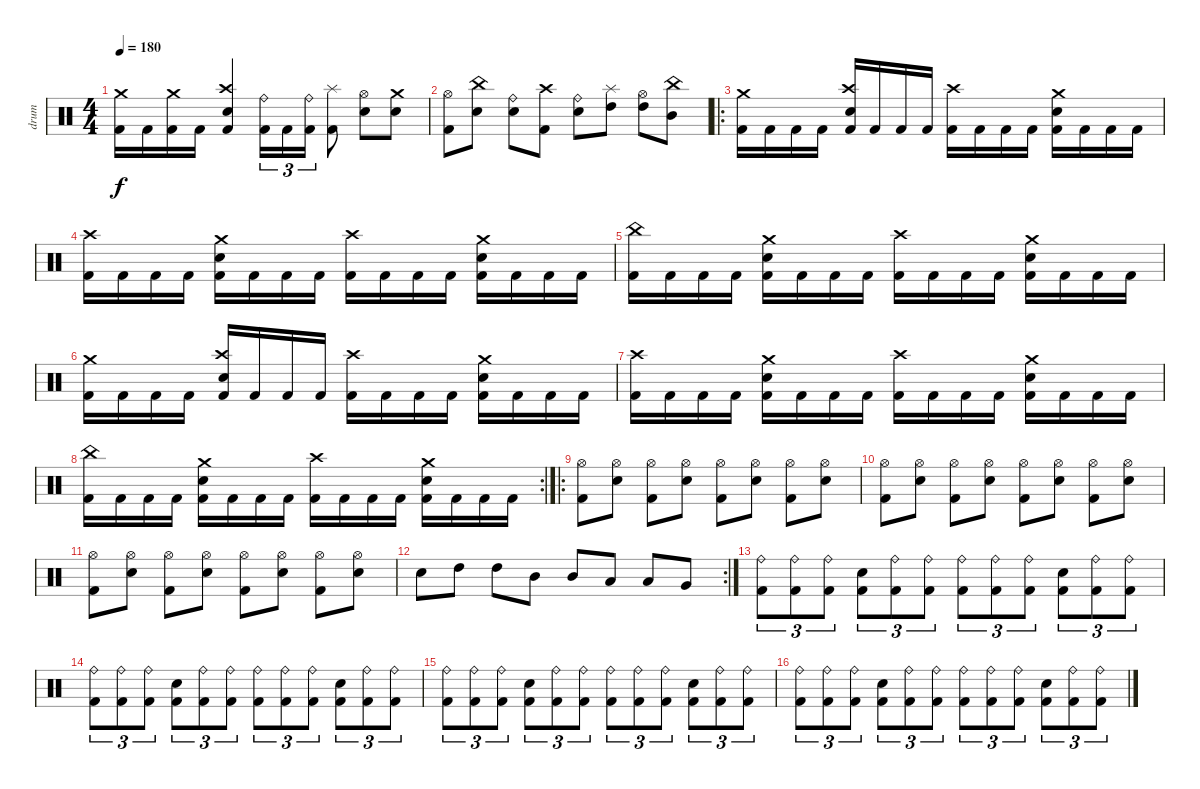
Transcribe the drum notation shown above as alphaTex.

\track ("drum" "drum") {instrument percussion}
\staff {score}
\articulation defaults
\ts (4 4)
\tempo 180
\clef neutral
\ks c
("Crash medium (hit)" "Kick (hit) 2").16{dy f} "Kick (hit) 2".16 ("Crash medium (hit)" "Kick (hit) 2").16 "Kick (hit) 2".16 ("Crash high (hit)" "Electric Snare (hit)" "Kick (hit) 2").4 ("Ride (bell)" "Kick (hit) 2").16{tu (3 2)} "Kick (hit) 2".16{tu (3 2)} ("Ride (bell)" "Kick (hit) 2").16{tu (3 2)} ("Splash (hit)" "Kick (hit) 2").8 ("Hi-Hat (open)" "Electric Snare (hit)").8 ("Crash medium (hit)" "Electric Snare (hit)").8 |
("Hi-Hat (open)" "Kick (hit) 2").8 ("China (hit)" "Electric Snare (hit)").8 ("Ride (bell)" "Electric Snare (hit)").8 ("Crash high (hit)" "Kick (hit) 2").8 ("Ride (bell)" "Electric Snare (hit)").8 ("Splash (hit)" "High Tom (hit)").8 ("Hi-Hat (open)" "High Tom (hit)").8 ("China (hit)" "Mid Tom (hit)").8 |
\ro
("Crash medium (hit)" "Kick (hit) 2").16 "Kick (hit) 2".16 "Kick (hit) 2".16 "Kick (hit) 2".16 ("Crash high (hit)" "Electric Snare (hit)" "Kick (hit) 2").16 "Kick (hit) 2".16 "Kick (hit) 2".16 "Kick (hit) 2".16 ("Crash high (hit)" "Kick (hit) 2").16 "Kick (hit) 2".16 "Kick (hit) 2".16 "Kick (hit) 2".16 ("Crash medium (hit)" "Electric Snare (hit)" "Kick (hit) 2").16 "Kick (hit) 2".16 "Kick (hit) 2".16 "Kick (hit) 2".16 |
("Crash high (hit)" "Kick (hit) 2").16 "Kick (hit) 2".16 "Kick (hit) 2".16 "Kick (hit) 2".16 ("Crash medium (hit)" "Electric Snare (hit)" "Kick (hit) 2").16 "Kick (hit) 2".16 "Kick (hit) 2".16 "Kick (hit) 2".16 ("Crash high (hit)" "Kick (hit) 2").16 "Kick (hit) 2".16 "Kick (hit) 2".16 "Kick (hit) 2".16 ("Crash medium (hit)" "Electric Snare (hit)" "Kick (hit) 2").16 "Kick (hit) 2".16 "Kick (hit) 2".16 "Kick (hit) 2".16 |
("China (hit)" "Kick (hit) 2").16 "Kick (hit) 2".16 "Kick (hit) 2".16 "Kick (hit) 2".16 ("Crash medium (hit)" "Electric Snare (hit)" "Kick (hit) 2").16 "Kick (hit) 2".16 "Kick (hit) 2".16 "Kick (hit) 2".16 ("Crash high (hit)" "Kick (hit) 2").16 "Kick (hit) 2".16 "Kick (hit) 2".16 "Kick (hit) 2".16 ("Crash medium (hit)" "Electric Snare (hit)" "Kick (hit) 2").16 "Kick (hit) 2".16 "Kick (hit) 2".16 "Kick (hit) 2".16 |
("Crash medium (hit)" "Kick (hit) 2").16 "Kick (hit) 2".16 "Kick (hit) 2".16 "Kick (hit) 2".16 ("Crash high (hit)" "Electric Snare (hit)" "Kick (hit) 2").16 "Kick (hit) 2".16 "Kick (hit) 2".16 "Kick (hit) 2".16 ("Crash high (hit)" "Kick (hit) 2").16 "Kick (hit) 2".16 "Kick (hit) 2".16 "Kick (hit) 2".16 ("Crash medium (hit)" "Electric Snare (hit)" "Kick (hit) 2").16 "Kick (hit) 2".16 "Kick (hit) 2".16 "Kick (hit) 2".16 |
("Crash high (hit)" "Kick (hit) 2").16 "Kick (hit) 2".16 "Kick (hit) 2".16 "Kick (hit) 2".16 ("Crash medium (hit)" "Electric Snare (hit)" "Kick (hit) 2").16 "Kick (hit) 2".16 "Kick (hit) 2".16 "Kick (hit) 2".16 ("Crash high (hit)" "Kick (hit) 2").16 "Kick (hit) 2".16 "Kick (hit) 2".16 "Kick (hit) 2".16 ("Crash medium (hit)" "Electric Snare (hit)" "Kick (hit) 2").16 "Kick (hit) 2".16 "Kick (hit) 2".16 "Kick (hit) 2".16 |
\rc 2
("China (hit)" "Kick (hit) 2").16 "Kick (hit) 2".16 "Kick (hit) 2".16 "Kick (hit) 2".16 ("Crash medium (hit)" "Electric Snare (hit)" "Kick (hit) 2").16 "Kick (hit) 2".16 "Kick (hit) 2".16 "Kick (hit) 2".16 ("Crash high (hit)" "Kick (hit) 2").16 "Kick (hit) 2".16 "Kick (hit) 2".16 "Kick (hit) 2".16 ("Crash medium (hit)" "Electric Snare (hit)" "Kick (hit) 2").16 "Kick (hit) 2".16 "Kick (hit) 2".16 "Kick (hit) 2".16 |
\ro
("Hi-Hat (open)" "Kick (hit) 2").8 ("Hi-Hat (open)" "Electric Snare (hit)").8 ("Hi-Hat (open)" "Kick (hit) 2").8 ("Hi-Hat (open)" "Electric Snare (hit)").8 ("Hi-Hat (open)" "Kick (hit) 2").8 ("Hi-Hat (open)" "Electric Snare (hit)").8 ("Hi-Hat (open)" "Kick (hit) 2").8 ("Hi-Hat (open)" "Electric Snare (hit)").8 |
("Hi-Hat (open)" "Kick (hit) 2").8 ("Hi-Hat (open)" "Electric Snare (hit)").8 ("Hi-Hat (open)" "Kick (hit) 2").8 ("Hi-Hat (open)" "Electric Snare (hit)").8 ("Hi-Hat (open)" "Kick (hit) 2").8 ("Hi-Hat (open)" "Electric Snare (hit)").8 ("Hi-Hat (open)" "Kick (hit) 2").8 ("Hi-Hat (open)" "Electric Snare (hit)").8 |
("Hi-Hat (open)" "Kick (hit) 2").8 ("Hi-Hat (open)" "Electric Snare (hit)").8 ("Hi-Hat (open)" "Kick (hit) 2").8 ("Hi-Hat (open)" "Electric Snare (hit)").8 ("Hi-Hat (open)" "Kick (hit) 2").8 ("Hi-Hat (open)" "Electric Snare (hit)").8 ("Hi-Hat (open)" "Kick (hit) 2").8 ("Hi-Hat (open)" "Electric Snare (hit)").8 |
\rc 2 "Electric Snare (hit)".8 "High Tom (hit)".8 "High Tom (hit)".8 "Mid Tom (hit)".8 "Mid Tom (hit)".8 "Low Tom (hit)".8 "Low Tom (hit)".8 "Very Low Tom (hit)".8
|
("Ride (bell)" "Kick (hit) 2").8{tu (3 2)} ("Ride (bell)" "Kick (hit) 2").8{tu (3 2)} ("Ride (bell)" "Kick (hit) 2").8{tu (3 2)} ("Electric Snare (hit)" "Kick (hit) 2").8{tu (3 2)} ("Ride (bell)" "Kick (hit) 2").8{tu (3 2)} ("Ride (bell)" "Kick (hit) 2").8{tu (3 2)} ("Ride (bell)" "Kick (hit) 2").8{tu (3 2)} ("Ride (bell)" "Kick (hit) 2").8{tu (3 2)} ("Ride (bell)" "Kick (hit) 2").8{tu (3 2)} ("Electric Snare (hit)" "Kick (hit) 2").8{tu (3 2)} ("Ride (bell)" "Kick (hit) 2").8{tu (3 2)} ("Ride (bell)" "Kick (hit) 2").8{tu (3 2)} |
("Ride (bell)" "Kick (hit) 2").8{tu (3 2)} ("Ride (bell)" "Kick (hit) 2").8{tu (3 2)} ("Ride (bell)" "Kick (hit) 2").8{tu (3 2)} ("Electric Snare (hit)" "Kick (hit) 2").8{tu (3 2)} ("Ride (bell)" "Kick (hit) 2").8{tu (3 2)} ("Ride (bell)" "Kick (hit) 2").8{tu (3 2)} ("Ride (bell)" "Kick (hit) 2").8{tu (3 2)} ("Ride (bell)" "Kick (hit) 2").8{tu (3 2)} ("Ride (bell)" "Kick (hit) 2").8{tu (3 2)} ("Electric Snare (hit)" "Kick (hit) 2").8{tu (3 2)} ("Ride (bell)" "Kick (hit) 2").8{tu (3 2)} ("Ride (bell)" "Kick (hit) 2").8{tu (3 2)} |
("Ride (bell)" "Kick (hit) 2").8{tu (3 2)} ("Ride (bell)" "Kick (hit) 2").8{tu (3 2)} ("Ride (bell)" "Kick (hit) 2").8{tu (3 2)} ("Electric Snare (hit)" "Kick (hit) 2").8{tu (3 2)} ("Ride (bell)" "Kick (hit) 2").8{tu (3 2)} ("Ride (bell)" "Kick (hit) 2").8{tu (3 2)} ("Ride (bell)" "Kick (hit) 2").8{tu (3 2)} ("Ride (bell)" "Kick (hit) 2").8{tu (3 2)} ("Ride (bell)" "Kick (hit) 2").8{tu (3 2)} ("Electric Snare (hit)" "Kick (hit) 2").8{tu (3 2)} ("Ride (bell)" "Kick (hit) 2").8{tu (3 2)} ("Ride (bell)" "Kick (hit) 2").8{tu (3 2)} |
("Ride (bell)" "Kick (hit) 2").8{tu (3 2)} ("Ride (bell)" "Kick (hit) 2").8{tu (3 2)} ("Ride (bell)" "Kick (hit) 2").8{tu (3 2)} ("Electric Snare (hit)" "Kick (hit) 2").8{tu (3 2)} ("Ride (bell)" "Kick (hit) 2").8{tu (3 2)} ("Ride (bell)" "Kick (hit) 2").8{tu (3 2)} ("Ride (bell)" "Kick (hit) 2").8{tu (3 2)} ("Ride (bell)" "Kick (hit) 2").8{tu (3 2)} ("Ride (bell)" "Kick (hit) 2").8{tu (3 2)} ("Electric Snare (hit)" "Kick (hit) 2").8{tu (3 2)} ("Ride (bell)" "Kick (hit) 2").8{tu (3 2)} ("Ride (bell)" "Kick (hit) 2").8{tu (3 2)}
